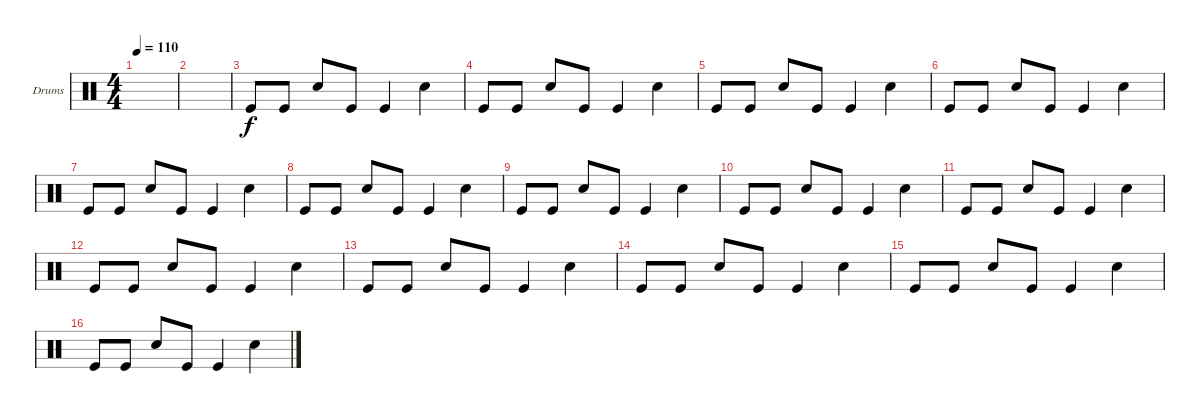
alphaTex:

\defaultSystemsLayout 4
\bracketExtendMode groupsimilarinstruments
\firstSystemTrackNameOrientation horizontal
\otherSystemsTrackNameOrientation horizontal
\track ("Drumkit" "Drums") {instrument percussion}
\staff {score}
\articulation defaults
\ts (4 4)
\tempo 110
\clef neutral
\ks c
|
|
\scale
0.474178 "Kick (hit)".8 "Kick (hit)".8 "Snare (hit) 2".8 "Kick (hit)".8 "Kick (hit)".4 "Snare (hit) 2".4 |
\scale
0.262911 "Kick (hit)".8 "Kick (hit)".8 "Snare (hit) 2".8 "Kick (hit)".8 "Kick (hit)".4 "Snare (hit) 2".4 |
\scale
0.262911 "Kick (hit)".8 "Kick (hit)".8 "Snare (hit) 2".8 "Kick (hit)".8 "Kick (hit)".4 "Snare (hit) 2".4 |
\scale
0.333333 "Kick (hit)".8 "Kick (hit)".8 "Snare (hit) 2".8 "Kick (hit)".8 "Kick (hit)".4 "Snare (hit) 2".4 |
\scale
0.333333 "Kick (hit)".8 "Kick (hit)".8 "Snare (hit) 2".8 "Kick (hit)".8 "Kick (hit)".4 "Snare (hit) 2".4 |
\scale
0.333333 "Kick (hit)".8 "Kick (hit)".8 "Snare (hit) 2".8 "Kick (hit)".8 "Kick (hit)".4 "Snare (hit) 2".4 |
\scale
0.333333 "Kick (hit)".8 "Kick (hit)".8 "Snare (hit) 2".8 "Kick (hit)".8 "Kick (hit)".4 "Snare (hit) 2".4 |
\scale
0.333333 "Kick (hit)".8 "Kick (hit)".8 "Snare (hit) 2".8 "Kick (hit)".8 "Kick (hit)".4 "Snare (hit) 2".4 |
\scale
0.333333 "Kick (hit)".8 "Kick (hit)".8 "Snare (hit) 2".8 "Kick (hit)".8 "Kick (hit)".4 "Snare (hit) 2".4 |
\scale
0.333333 "Kick (hit)".8 "Kick (hit)".8 "Snare (hit) 2".8 "Kick (hit)".8 "Kick (hit)".4 "Snare (hit) 2".4 |
\scale
0.333333 "Kick (hit)".8 "Kick (hit)".8 "Snare (hit) 2".8 "Kick (hit)".8 "Kick (hit)".4 "Snare (hit) 2".4 |
\scale
0.333333 "Kick (hit)".8 "Kick (hit)".8 "Snare (hit) 2".8 "Kick (hit)".8 "Kick (hit)".4 "Snare (hit) 2".4 |
\scale
0.333333 "Kick (hit)".8 "Kick (hit)".8 "Snare (hit) 2".8 "Kick (hit)".8 "Kick (hit)".4 "Snare (hit) 2".4 |
\scale
0.333333 "Kick (hit)".8 "Kick (hit)".8 "Snare (hit) 2".8 "Kick (hit)".8 "Kick (hit)".4 "Snare (hit) 2".4
